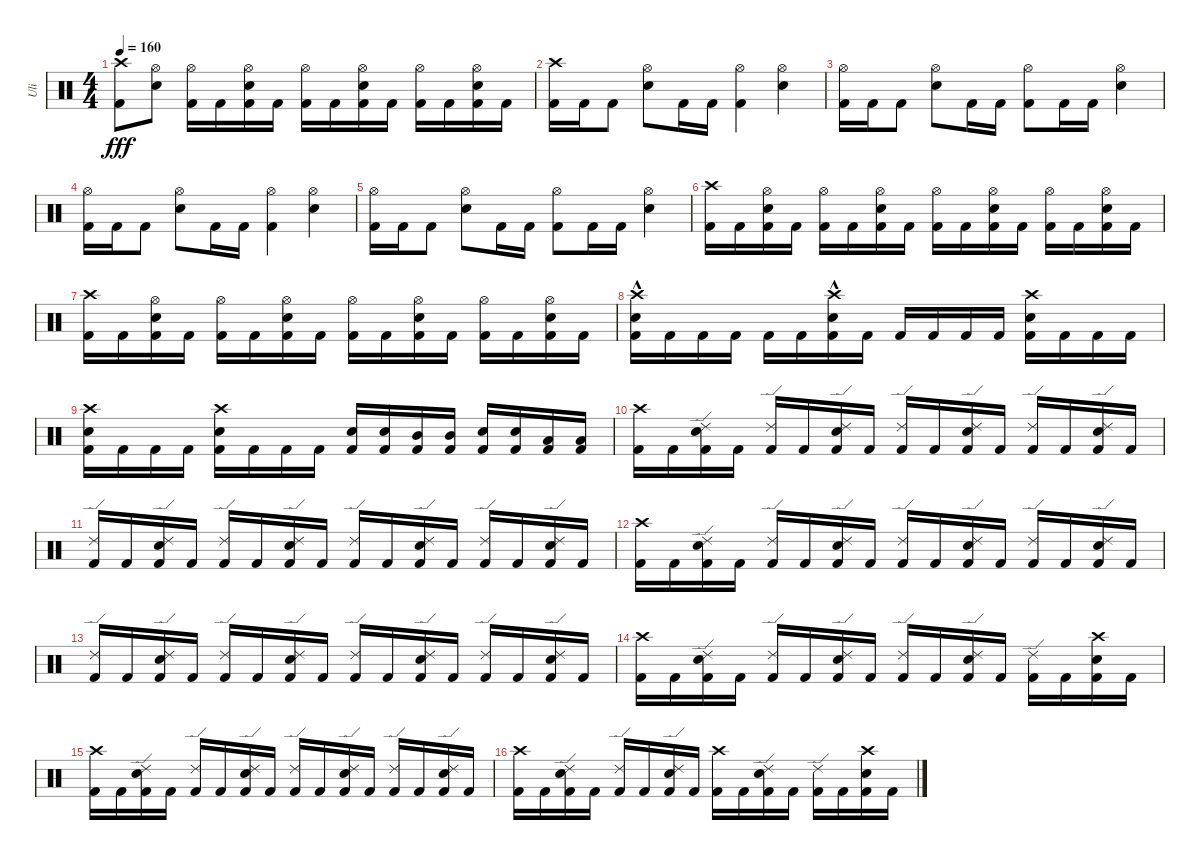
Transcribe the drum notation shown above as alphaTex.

\track ("Uli" "Uli") {instrument percussion}
\staff {score}
\articulation defaults
\ts (4 4)
\tempo 160
\clef neutral
\ks c
("Crash high (hit)" "Kick (hit) 2").8{dy fff} ("Hi-Hat (open)" "Electric Snare (hit)").8 ("Hi-Hat (open)" "Kick (hit) 2").16 "Kick (hit) 2".16 ("Kick (hit) 2" "Electric Snare (hit)" "Hi-Hat (open)").16 "Kick (hit) 2".16 ("Hi-Hat (open)" "Kick (hit) 2").16 "Kick (hit) 2".16 ("Kick (hit) 2" "Electric Snare (hit)" "Hi-Hat (open)").16 "Kick (hit) 2".16 ("Hi-Hat (open)" "Kick (hit) 2").16 "Kick (hit) 2".16 ("Kick (hit) 2" "Electric Snare (hit)" "Hi-Hat (open)").16 "Kick (hit) 2".16 |
("Crash high (hit)" "Kick (hit) 2").16 "Kick (hit) 2".16 "Kick (hit) 2".8 ("Electric Snare (hit)" "Hi-Hat (open)").8 "Kick (hit) 2".16 "Kick (hit) 2".16 ("Hi-Hat (open)" "Kick (hit) 2").4 ("Electric Snare (hit)" "Hi-Hat (open)").4 |
("Kick (hit) 2" "Hi-Hat (open)").16 "Kick (hit) 2".16 "Kick (hit) 2".8 ("Electric Snare (hit)" "Hi-Hat (open)").8 "Kick (hit) 2".16 "Kick (hit) 2".16 ("Hi-Hat (open)" "Kick (hit) 2").8 "Kick (hit) 2".16 "Kick (hit) 2".16 ("Electric Snare (hit)" "Hi-Hat (open)").4 |
("Kick (hit) 2" "Hi-Hat (open)").16 "Kick (hit) 2".16 "Kick (hit) 2".8 ("Electric Snare (hit)" "Hi-Hat (open)").8 "Kick (hit) 2".16 "Kick (hit) 2".16 ("Hi-Hat (open)" "Kick (hit) 2").4 ("Electric Snare (hit)" "Hi-Hat (open)").4 |
("Kick (hit) 2" "Hi-Hat (open)").16 "Kick (hit) 2".16 "Kick (hit) 2".8 ("Electric Snare (hit)" "Hi-Hat (open)").8 "Kick (hit) 2".16 "Kick (hit) 2".16 ("Hi-Hat (open)" "Kick (hit) 2").8 "Kick (hit) 2".16 "Kick (hit) 2".16 ("Electric Snare (hit)" "Hi-Hat (open)").4 |
("Crash high (hit)" "Kick (hit) 2").16 "Kick (hit) 2".16 ("Hi-Hat (open)" "Electric Snare (hit)" "Kick (hit) 2").16 "Kick (hit) 2".16 ("Hi-Hat (open)" "Kick (hit) 2").16 "Kick (hit) 2".16 ("Kick (hit) 2" "Electric Snare (hit)" "Hi-Hat (open)").16 "Kick (hit) 2".16 ("Hi-Hat (open)" "Kick (hit) 2").16 "Kick (hit) 2".16 ("Kick (hit) 2" "Electric Snare (hit)" "Hi-Hat (open)").16 "Kick (hit) 2".16 ("Hi-Hat (open)" "Kick (hit) 2").16 "Kick (hit) 2".16 ("Kick (hit) 2" "Electric Snare (hit)" "Hi-Hat (open)").16 "Kick (hit) 2".16 |
("Crash high (hit)" "Kick (hit) 2").16 "Kick (hit) 2".16 ("Hi-Hat (open)" "Electric Snare (hit)" "Kick (hit) 2").16 "Kick (hit) 2".16 ("Hi-Hat (open)" "Kick (hit) 2").16 "Kick (hit) 2".16 ("Kick (hit) 2" "Electric Snare (hit)" "Hi-Hat (open)").16 "Kick (hit) 2".16 ("Hi-Hat (open)" "Kick (hit) 2").16 "Kick (hit) 2".16 ("Kick (hit) 2" "Electric Snare (hit)" "Hi-Hat (open)").16 "Kick (hit) 2".16 ("Hi-Hat (open)" "Kick (hit) 2").16 "Kick (hit) 2".16 ("Kick (hit) 2" "Electric Snare (hit)" "Hi-Hat (open)").16 "Kick (hit) 2".16 |
("Kick (hit) 2" "Crash high (hit)"{hac} "Electric Snare (hit)"{hac}).16 "Kick (hit) 2".16 "Kick (hit) 2".16 "Kick (hit) 2".16 "Kick (hit) 2".16 "Kick (hit) 2".16 ("Kick (hit) 2" "Electric Snare (hit)" "Crash high (hit)"{hac}).16 "Kick (hit) 2".16 "Kick (hit) 2".16 "Kick (hit) 2".16 "Kick (hit) 2".16 "Kick (hit) 2".16 ("Kick (hit) 2" "Electric Snare (hit)" "Crash high (hit)").16 "Kick (hit) 2".16 "Kick (hit) 2".16 "Kick (hit) 2".16 |
("Kick (hit) 2" "Electric Snare (hit)" "Crash high (hit)").16 "Kick (hit) 2".16 "Kick (hit) 2".16 "Kick (hit) 2".16 ("Kick (hit) 2" "Electric Snare (hit)" "Crash high (hit)").16 "Kick (hit) 2".16 "Kick (hit) 2".16 "Kick (hit) 2".16 ("Kick (hit) 2" "Electric Snare (hit)").16 ("Kick (hit) 2" "Electric Snare (hit)").16 ("Kick (hit) 2" "Mid Tom (hit)").16 ("Kick (hit) 2" "Mid Tom (hit)").16 ("Kick (hit) 2" "Electric Snare (hit)").16 ("Kick (hit) 2" "Electric Snare (hit)").16 ("Kick (hit) 2" "Low Tom (hit)").16 ("Kick (hit) 2" "Low Tom (hit)").16 |
("Kick (hit) 2" "Crash high (hit)").16 "Kick (hit) 2".16 ("Kick (hit) 2" "Electric Snare (hit)" "Ride (edge) 2").16 "Kick (hit) 2".16 ("Kick (hit) 2" "Ride (edge) 2").16 "Kick (hit) 2".16 ("Kick (hit) 2" "Electric Snare (hit)" "Ride (edge) 2").16 "Kick (hit) 2".16 ("Kick (hit) 2" "Ride (edge) 2").16 "Kick (hit) 2".16 ("Kick (hit) 2" "Electric Snare (hit)" "Ride (edge) 2").16 "Kick (hit) 2".16 ("Kick (hit) 2" "Ride (edge) 2").16 "Kick (hit) 2".16 ("Kick (hit) 2" "Electric Snare (hit)" "Ride (edge) 2").16 "Kick (hit) 2".16 |
("Kick (hit) 2" "Ride (edge) 2").16 "Kick (hit) 2".16 ("Kick (hit) 2" "Electric Snare (hit)" "Ride (edge) 2").16 "Kick (hit) 2".16 ("Kick (hit) 2" "Ride (edge) 2").16 "Kick (hit) 2".16 ("Kick (hit) 2" "Electric Snare (hit)" "Ride (edge) 2").16 "Kick (hit) 2".16 ("Kick (hit) 2" "Ride (edge) 2").16 "Kick (hit) 2".16 ("Kick (hit) 2" "Electric Snare (hit)" "Ride (edge) 2").16 "Kick (hit) 2".16 ("Kick (hit) 2" "Ride (edge) 2").16 "Kick (hit) 2".16 ("Kick (hit) 2" "Electric Snare (hit)" "Ride (edge) 2").16 "Kick (hit) 2".16 |
("Kick (hit) 2" "Crash high (hit)").16 "Kick (hit) 2".16 ("Kick (hit) 2" "Electric Snare (hit)" "Ride (edge) 2").16 "Kick (hit) 2".16 ("Kick (hit) 2" "Ride (edge) 2").16 "Kick (hit) 2".16 ("Kick (hit) 2" "Electric Snare (hit)" "Ride (edge) 2").16 "Kick (hit) 2".16 ("Kick (hit) 2" "Ride (edge) 2").16 "Kick (hit) 2".16 ("Kick (hit) 2" "Electric Snare (hit)" "Ride (edge) 2").16 "Kick (hit) 2".16 ("Kick (hit) 2" "Ride (edge) 2").16 "Kick (hit) 2".16 ("Kick (hit) 2" "Electric Snare (hit)" "Ride (edge) 2").16 "Kick (hit) 2".16 |
("Kick (hit) 2" "Ride (edge) 2").16 "Kick (hit) 2".16 ("Kick (hit) 2" "Electric Snare (hit)" "Ride (edge) 2").16 "Kick (hit) 2".16 ("Kick (hit) 2" "Ride (edge) 2").16 "Kick (hit) 2".16 ("Kick (hit) 2" "Electric Snare (hit)" "Ride (edge) 2").16 "Kick (hit) 2".16 ("Kick (hit) 2" "Ride (edge) 2").16 "Kick (hit) 2".16 ("Kick (hit) 2" "Electric Snare (hit)" "Ride (edge) 2").16 "Kick (hit) 2".16 ("Kick (hit) 2" "Ride (edge) 2").16 "Kick (hit) 2".16 ("Kick (hit) 2" "Electric Snare (hit)" "Ride (edge) 2").16 "Kick (hit) 2".16 |
("Kick (hit) 2" "Crash high (hit)").16 "Kick (hit) 2".16 ("Kick (hit) 2" "Electric Snare (hit)" "Ride (edge) 2").16 "Kick (hit) 2".16 ("Kick (hit) 2" "Ride (edge) 2").16 "Kick (hit) 2".16 ("Kick (hit) 2" "Electric Snare (hit)" "Ride (edge) 2").16 "Kick (hit) 2".16 ("Kick (hit) 2" "Ride (edge) 2").16 "Kick (hit) 2".16 ("Kick (hit) 2" "Electric Snare (hit)" "Ride (edge) 2").16 "Kick (hit) 2".16 ("Kick (hit) 2" "Ride (edge) 2").16 "Kick (hit) 2".16 ("Kick (hit) 2" "Electric Snare (hit)" "Crash high (hit)").16 "Kick (hit) 2".16 |
("Kick (hit) 2" "Crash high (hit)").16 "Kick (hit) 2".16 ("Kick (hit) 2" "Electric Snare (hit)" "Ride (edge) 2").16 "Kick (hit) 2".16 ("Kick (hit) 2" "Ride (edge) 2").16 "Kick (hit) 2".16 ("Kick (hit) 2" "Electric Snare (hit)" "Ride (edge) 2").16 "Kick (hit) 2".16 ("Kick (hit) 2" "Ride (edge) 2").16 "Kick (hit) 2".16 ("Kick (hit) 2" "Electric Snare (hit)" "Ride (edge) 2").16 "Kick (hit) 2".16 ("Kick (hit) 2" "Ride (edge) 2").16 "Kick (hit) 2".16 ("Kick (hit) 2" "Electric Snare (hit)" "Ride (edge) 2").16 "Kick (hit) 2".16 |
("Kick (hit) 2" "Crash high (hit)").16 "Kick (hit) 2".16 ("Kick (hit) 2" "Electric Snare (hit)" "Ride (edge) 2").16 "Kick (hit) 2".16 ("Kick (hit) 2" "Ride (edge) 2").16 "Kick (hit) 2".16 ("Kick (hit) 2" "Electric Snare (hit)" "Ride (edge) 2").16 "Kick (hit) 2".16 ("Kick (hit) 2" "Crash high (hit)").16 "Kick (hit) 2".16 ("Kick (hit) 2" "Electric Snare (hit)" "Ride (edge) 2").16 "Kick (hit) 2".16 ("Kick (hit) 2" "Ride (edge) 2").16 "Kick (hit) 2".16 ("Kick (hit) 2" "Electric Snare (hit)" "Crash high (hit)").16 "Kick (hit) 2".16
